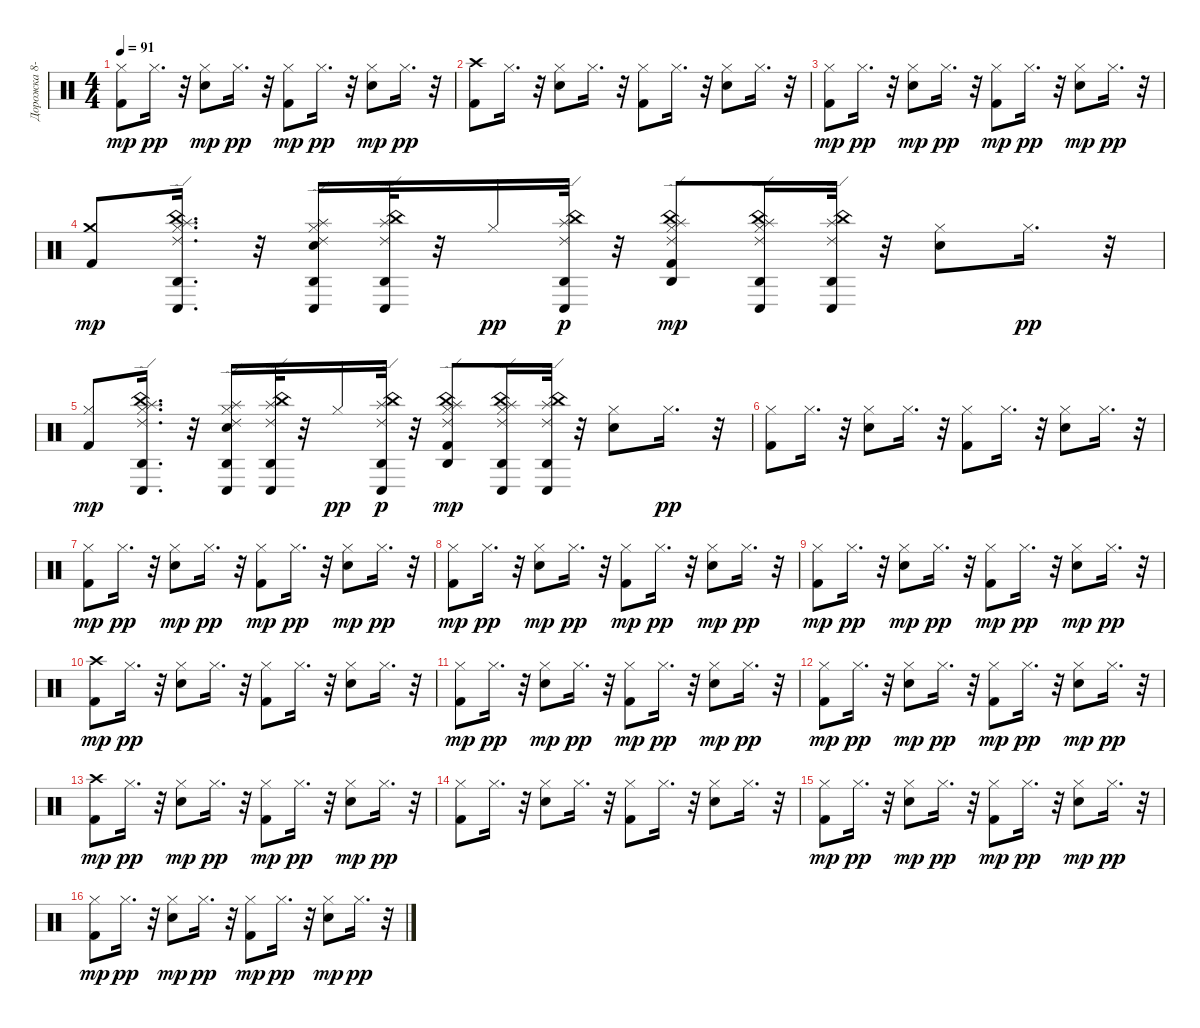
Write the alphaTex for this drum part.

\track ("Дорожка 8-9-10-11" "Дорожка 8-") {instrument percussion}
\staff {score}
\articulation defaults
\ts (4 4)
\tempo 91
\clef neutral
\ks c
("Hi-Hat (closed)" "Kick (hit) 2").8{dy mp} "Hi-Hat (closed)".16{d dy pp} r.32 ("Hi-Hat (closed)" "Electric Snare (hit)").8{dy mp} "Hi-Hat (closed)".16{d dy pp} r.32 ("Hi-Hat (closed)" "Kick (hit) 2").8{dy mp} "Hi-Hat (closed)".16{d dy pp} r.32 ("Hi-Hat (closed)" "Electric Snare (hit)").8{dy mp} "Hi-Hat (closed)".16{d dy pp} r.32 |
("Kick (hit) 2" "Crash high (hit)").8 "Hi-Hat (closed)".16{d} r.32 ("Electric Snare (hit)" "Hi-Hat (closed)").8 "Hi-Hat (closed)".16{d} r.32 ("Kick (hit) 2" "Hi-Hat (closed)").8 "Hi-Hat (closed)".16{d} r.32 ("Electric Snare (hit)" "Hi-Hat (closed)").8 "Hi-Hat (closed)".16{d} r.32 |
("Hi-Hat (closed)" "Kick (hit) 2").8{dy mp} "Hi-Hat (closed)".16{d dy pp} r.32 ("Hi-Hat (closed)" "Electric Snare (hit)").8{dy mp} "Hi-Hat (closed)".16{d dy pp} r.32 ("Hi-Hat (closed)" "Kick (hit) 2").8{dy mp} "Hi-Hat (closed)".16{d dy pp} r.32 ("Hi-Hat (closed)" "Electric Snare (hit)").8{dy mp} "Hi-Hat (closed)".16{d dy pp} r.32 |
("Kick (hit) 2" "Crash medium (hit)").8{dy mp} ("Hi-Hat (closed)" "China (hit)" "Ride (edge) 2" "Splash (hit)" "Agogo high (hit)" "Conga low (hit)").16{d} r.32 ("Hi-Hat (closed)" "Electric Snare (hit)" "Ride (edge) 2" "Agogo high (hit)" "Conga low (hit)" "Splash (hit)").16 ("Ride (edge) 2" "China (hit)" "Splash (hit)" "Conga low (hit)" "Agogo high (hit)").32 r.32 "Hi-Hat (closed)".16{dy pp} ("China (hit)" "Ride (edge) 2" "Splash (hit)" "Conga low (hit)" "Agogo high (hit)").32{dy p} r.32 ("Hi-Hat (closed)" "Kick (hit) 2" "Splash (hit)" "Ride (edge) 2" "China (hit)" "Agogo high (hit)").8{dy mp} ("Hi-Hat (closed)" "Ride (edge) 2" "Conga low (hit)" "Agogo high (hit)" "Splash (hit)" "China (hit)").16 ("Splash (hit)" "Ride (edge) 2" "China (hit)" "Conga low (hit)" "Agogo high (hit)").32 r.32 ("Hi-Hat (closed)" "Electric Snare (hit)").8 "Hi-Hat (closed)".16{d dy pp} r.32 |
("Hi-Hat (closed)" "Kick (hit) 2").8{dy mp} ("Hi-Hat (closed)" "China (hit)" "Ride (edge) 2" "Splash (hit)" "Agogo high (hit)" "Conga low (hit)").16{d} r.32 ("Hi-Hat (closed)" "Electric Snare (hit)" "Ride (edge) 2" "Agogo high (hit)" "Conga low (hit)" "Splash (hit)").16 ("Ride (edge) 2" "China (hit)" "Splash (hit)" "Conga low (hit)" "Agogo high (hit)").32 r.32 "Hi-Hat (closed)".16{dy pp} ("China (hit)" "Ride (edge) 2" "Splash (hit)" "Conga low (hit)" "Agogo high (hit)").32{dy p} r.32 ("Hi-Hat (closed)" "Kick (hit) 2" "Splash (hit)" "Ride (edge) 2" "China (hit)" "Agogo high (hit)").8{dy mp} ("Hi-Hat (closed)" "Ride (edge) 2" "Conga low (hit)" "Agogo high (hit)" "Splash (hit)" "China (hit)").16 ("Splash (hit)" "Ride (edge) 2" "China (hit)" "Conga low (hit)" "Agogo high (hit)").32 r.32 ("Hi-Hat (closed)" "Electric Snare (hit)").8 "Hi-Hat (closed)".16{d dy pp} r.32 |
("Kick (hit) 2" "Hi-Hat (closed)").8 "Hi-Hat (closed)".16{d} r.32 ("Electric Snare (hit)" "Hi-Hat (closed)").8 "Hi-Hat (closed)".16{d} r.32 ("Kick (hit) 2" "Hi-Hat (closed)").8 "Hi-Hat (closed)".16{d} r.32 ("Electric Snare (hit)" "Hi-Hat (closed)").8 "Hi-Hat (closed)".16{d} r.32 |
("Hi-Hat (closed)" "Kick (hit) 2").8{dy mp} "Hi-Hat (closed)".16{d dy pp} r.32 ("Hi-Hat (closed)" "Electric Snare (hit)").8{dy mp} "Hi-Hat (closed)".16{d dy pp} r.32 ("Hi-Hat (closed)" "Kick (hit) 2").8{dy mp} "Hi-Hat (closed)".16{d dy pp} r.32 ("Hi-Hat (closed)" "Electric Snare (hit)").8{dy mp} "Hi-Hat (closed)".16{d dy pp} r.32 |
("Hi-Hat (closed)" "Kick (hit) 2").8{dy mp} "Hi-Hat (closed)".16{d dy pp} r.32 ("Hi-Hat (closed)" "Electric Snare (hit)").8{dy mp} "Hi-Hat (closed)".16{d dy pp} r.32 ("Hi-Hat (closed)" "Kick (hit) 2").8{dy mp} "Hi-Hat (closed)".16{d dy pp} r.32 ("Hi-Hat (closed)" "Electric Snare (hit)").8{dy mp} "Hi-Hat (closed)".16{d dy pp} r.32 |
("Hi-Hat (closed)" "Kick (hit) 2").8{dy mp} "Hi-Hat (closed)".16{d dy pp} r.32 ("Hi-Hat (closed)" "Electric Snare (hit)").8{dy mp} "Hi-Hat (closed)".16{d dy pp} r.32 ("Hi-Hat (closed)" "Kick (hit) 2").8{dy mp} "Hi-Hat (closed)".16{d dy pp} r.32 ("Hi-Hat (closed)" "Electric Snare (hit)").8{dy mp} "Hi-Hat (closed)".16{d dy pp} r.32 |
("Kick (hit) 2" "Crash high (hit)").8{dy mp} "Hi-Hat (closed)".16{d dy pp} r.32 ("Electric Snare (hit)" "Hi-Hat (closed)").8 "Hi-Hat (closed)".16{d} r.32 ("Kick (hit) 2" "Hi-Hat (closed)").8 "Hi-Hat (closed)".16{d} r.32 ("Electric Snare (hit)" "Hi-Hat (closed)").8 "Hi-Hat (closed)".16{d} r.32 |
("Hi-Hat (closed)" "Kick (hit) 2").8{dy mp} "Hi-Hat (closed)".16{d dy pp} r.32 ("Hi-Hat (closed)" "Electric Snare (hit)").8{dy mp} "Hi-Hat (closed)".16{d dy pp} r.32 ("Hi-Hat (closed)" "Kick (hit) 2").8{dy mp} "Hi-Hat (closed)".16{d dy pp} r.32 ("Hi-Hat (closed)" "Electric Snare (hit)").8{dy mp} "Hi-Hat (closed)".16{d dy pp} r.32 |
("Hi-Hat (closed)" "Kick (hit) 2").8{dy mp} "Hi-Hat (closed)".16{d dy pp} r.32 ("Hi-Hat (closed)" "Electric Snare (hit)").8{dy mp} "Hi-Hat (closed)".16{d dy pp} r.32 ("Hi-Hat (closed)" "Kick (hit) 2").8{dy mp} "Hi-Hat (closed)".16{d dy pp} r.32 ("Hi-Hat (closed)" "Electric Snare (hit)").8{dy mp} "Hi-Hat (closed)".16{d dy pp} r.32 |
("Kick (hit) 2" "Crash high (hit)").8{dy mp} "Hi-Hat (closed)".16{d dy pp} r.32 ("Hi-Hat (closed)" "Electric Snare (hit)").8{dy mp} "Hi-Hat (closed)".16{d dy pp} r.32 ("Hi-Hat (closed)" "Kick (hit) 2").8{dy mp} "Hi-Hat (closed)".16{d dy pp} r.32 ("Hi-Hat (closed)" "Electric Snare (hit)").8{dy mp} "Hi-Hat (closed)".16{d dy pp} r.32 |
("Kick (hit) 2" "Hi-Hat (closed)").8 "Hi-Hat (closed)".16{d} r.32 ("Electric Snare (hit)" "Hi-Hat (closed)").8 "Hi-Hat (closed)".16{d} r.32 ("Kick (hit) 2" "Hi-Hat (closed)").8 "Hi-Hat (closed)".16{d} r.32 ("Electric Snare (hit)" "Hi-Hat (closed)").8 "Hi-Hat (closed)".16{d} r.32 |
("Hi-Hat (closed)" "Kick (hit) 2").8{dy mp} "Hi-Hat (closed)".16{d dy pp} r.32 ("Hi-Hat (closed)" "Electric Snare (hit)").8{dy mp} "Hi-Hat (closed)".16{d dy pp} r.32 ("Hi-Hat (closed)" "Kick (hit) 2").8{dy mp} "Hi-Hat (closed)".16{d dy pp} r.32 ("Hi-Hat (closed)" "Electric Snare (hit)").8{dy mp} "Hi-Hat (closed)".16{d dy pp} r.32 |
("Hi-Hat (closed)" "Kick (hit) 2").8{dy mp} "Hi-Hat (closed)".16{d dy pp} r.32 ("Hi-Hat (closed)" "Electric Snare (hit)").8{dy mp} "Hi-Hat (closed)".16{d dy pp} r.32 ("Hi-Hat (closed)" "Kick (hit) 2").8{dy mp} "Hi-Hat (closed)".16{d dy pp} r.32 ("Hi-Hat (closed)" "Electric Snare (hit)").8{dy mp} "Hi-Hat (closed)".16{d dy pp} r.32
